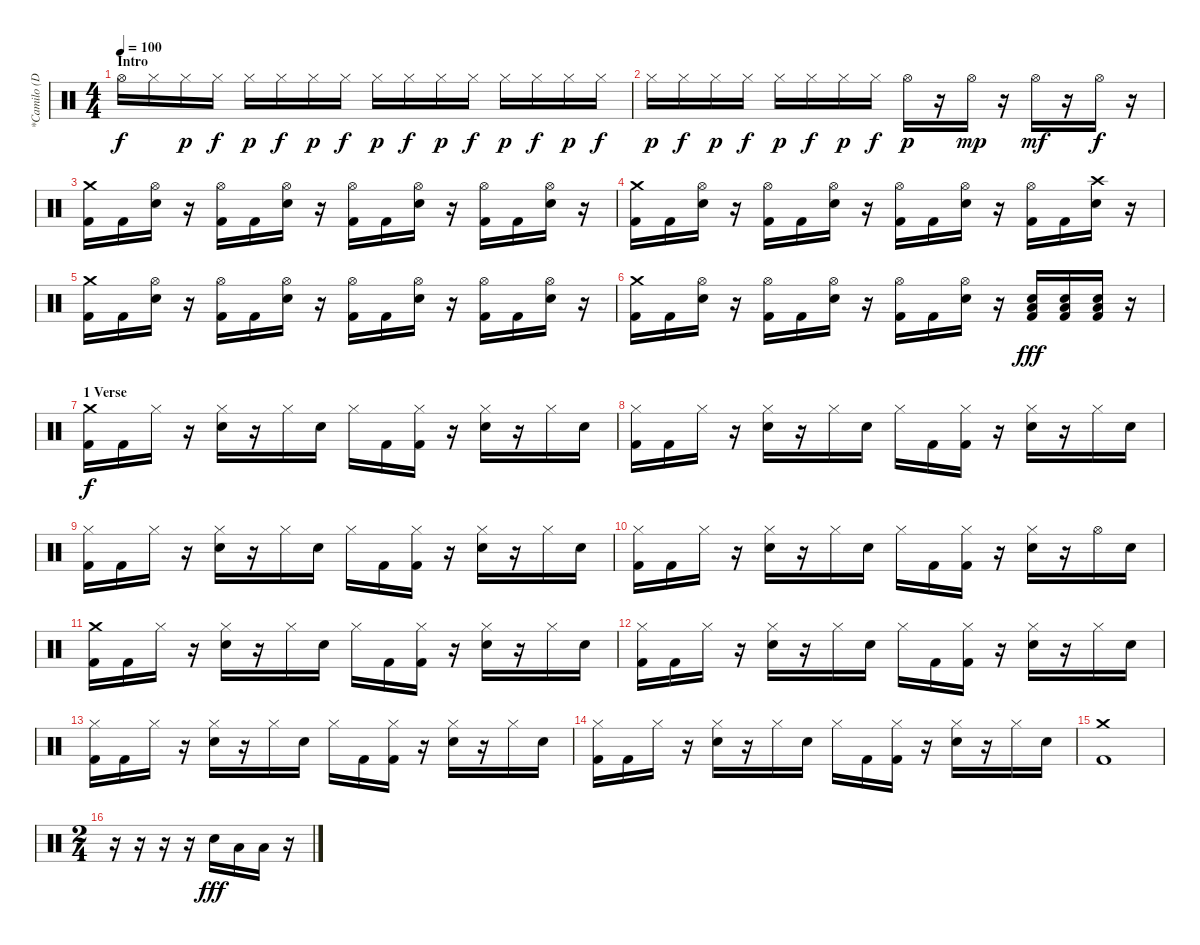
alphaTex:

\track ("*Camilo (Drums)" "*Camilo (D") {instrument percussion}
\staff {score}
\articulation defaults
\ts (4 4)
\section ("" "Intro")
\tempo 100
\clef neutral
\ks c "Hi-Hat (open)".16{dy f} "Hi-Hat (closed)".16 "Hi-Hat (closed)".16{dy p} "Hi-Hat (closed)".16{dy f} "Hi-Hat (closed)".16{dy p} "Hi-Hat (closed)".16{dy f} "Hi-Hat (closed)".16{dy p} "Hi-Hat (closed)".16{dy f} "Hi-Hat (closed)".16{dy p} "Hi-Hat (closed)".16{dy f} "Hi-Hat (closed)".16{dy p} "Hi-Hat (closed)".16{dy f} "Hi-Hat (closed)".16{dy p} "Hi-Hat (closed)".16{dy f} "Hi-Hat (closed)".16{dy p} "Hi-Hat (closed)".16{dy f}
|
"Hi-Hat (closed)".16{dy p} "Hi-Hat (closed)".16{dy f} "Hi-Hat (closed)".16{dy p} "Hi-Hat (closed)".16{dy f} "Hi-Hat (closed)".16{dy p} "Hi-Hat (closed)".16{dy f} "Hi-Hat (closed)".16{dy p} "Hi-Hat (closed)".16{dy f} "Hi-Hat (open)".16{dy p} r.16 "Hi-Hat (open)".16{dy mp} r.16 "Hi-Hat (open)".16{dy mf} r.16 "Hi-Hat (open)".16{dy f} r.16 |
("Crash medium (hit)" "Kick (hit) 2").16 "Kick (hit) 2".16 ("Hi-Hat (open)" "Electric Snare (hit)").16 r.16 ("Hi-Hat (open)" "Kick (hit) 2").16 "Kick (hit) 2".16 ("Hi-Hat (open)" "Electric Snare (hit)").16 r.16 ("Hi-Hat (open)" "Kick (hit) 2").16 "Kick (hit) 2".16 ("Hi-Hat (open)" "Electric Snare (hit)").16 r.16 ("Hi-Hat (open)" "Kick (hit) 2").16 "Kick (hit) 2".16 ("Hi-Hat (open)" "Electric Snare (hit)").16 r.16 |
("Crash medium (hit)" "Kick (hit) 2").16 "Kick (hit) 2".16 ("Hi-Hat (open)" "Electric Snare (hit)").16 r.16 ("Hi-Hat (open)" "Kick (hit) 2").16 "Kick (hit) 2".16 ("Hi-Hat (open)" "Electric Snare (hit)").16 r.16 ("Hi-Hat (open)" "Kick (hit) 2").16 "Kick (hit) 2".16 ("Hi-Hat (open)" "Electric Snare (hit)").16 r.16 ("Hi-Hat (open)" "Kick (hit) 2").16 "Kick (hit) 2".16 ("Crash high (hit)" "Electric Snare (hit)").16 r.16 |
("Crash medium (hit)" "Kick (hit) 2").16 "Kick (hit) 2".16 ("Hi-Hat (open)" "Electric Snare (hit)").16 r.16 ("Hi-Hat (open)" "Kick (hit) 2").16 "Kick (hit) 2".16 ("Hi-Hat (open)" "Electric Snare (hit)").16 r.16 ("Hi-Hat (open)" "Kick (hit) 2").16 "Kick (hit) 2".16 ("Hi-Hat (open)" "Electric Snare (hit)").16 r.16 ("Hi-Hat (open)" "Kick (hit) 2").16 "Kick (hit) 2".16 ("Hi-Hat (open)" "Electric Snare (hit)").16 r.16 |
("Crash medium (hit)" "Kick (hit) 2").16 "Kick (hit) 2".16 ("Hi-Hat (open)" "Electric Snare (hit)").16 r.16 ("Hi-Hat (open)" "Kick (hit) 2").16 "Kick (hit) 2".16 ("Hi-Hat (open)" "Electric Snare (hit)").16 r.16 ("Hi-Hat (open)" "Kick (hit) 2").16 "Kick (hit) 2".16 ("Hi-Hat (open)" "Electric Snare (hit)").16 r.16 ("Electric Snare (hit)" "Low Floor Tom (hit)" "Kick (hit) 2").16{dy fff} ("Electric Snare (hit)" "Low Floor Tom (hit)" "Kick (hit) 2").16 ("Electric Snare (hit)" "Low Floor Tom (hit)" "Kick (hit) 2").16 r.16 |
\section ("" "1 Verse")
("Crash medium (hit)" "Kick (hit) 2").16{dy f} "Kick (hit) 2".16 "Hi-Hat (closed)".16 r.16 ("Hi-Hat (closed)" "Electric Snare (hit)").16 r.16 "Hi-Hat (closed)".16 "Electric Snare (hit)".16 "Hi-Hat (closed)".16 "Kick (hit) 2".16 ("Hi-Hat (closed)" "Kick (hit) 2").16 r.16 ("Hi-Hat (closed)" "Electric Snare (hit)").16 r.16 "Hi-Hat (closed)".16 "Electric Snare (hit)".16 |
("Hi-Hat (closed)" "Kick (hit) 2").16 "Kick (hit) 2".16 "Hi-Hat (closed)".16 r.16 ("Hi-Hat (closed)" "Electric Snare (hit)").16 r.16 "Hi-Hat (closed)".16 "Electric Snare (hit)".16 "Hi-Hat (closed)".16 "Kick (hit) 2".16 ("Hi-Hat (closed)" "Kick (hit) 2").16 r.16 ("Hi-Hat (closed)" "Electric Snare (hit)").16 r.16 "Hi-Hat (closed)".16 "Electric Snare (hit)".16 |
("Hi-Hat (closed)" "Kick (hit) 2").16 "Kick (hit) 2".16 "Hi-Hat (closed)".16 r.16 ("Hi-Hat (closed)" "Electric Snare (hit)").16 r.16 "Hi-Hat (closed)".16 "Electric Snare (hit)".16 "Hi-Hat (closed)".16 "Kick (hit) 2".16 ("Hi-Hat (closed)" "Kick (hit) 2").16 r.16 ("Hi-Hat (closed)" "Electric Snare (hit)").16 r.16 "Hi-Hat (closed)".16 "Electric Snare (hit)".16 |
("Hi-Hat (closed)" "Kick (hit) 2").16 "Kick (hit) 2".16 "Hi-Hat (closed)".16 r.16 ("Hi-Hat (closed)" "Electric Snare (hit)").16 r.16 "Hi-Hat (closed)".16 "Electric Snare (hit)".16 "Hi-Hat (closed)".16 "Kick (hit) 2".16 ("Hi-Hat (closed)" "Kick (hit) 2").16 r.16 ("Hi-Hat (closed)" "Electric Snare (hit)").16 r.16 "Hi-Hat (open)".16 "Electric Snare (hit)".16 |
("Crash medium (hit)" "Kick (hit) 2").16 "Kick (hit) 2".16 "Hi-Hat (closed)".16 r.16 ("Hi-Hat (closed)" "Electric Snare (hit)").16 r.16 "Hi-Hat (closed)".16 "Electric Snare (hit)".16 "Hi-Hat (closed)".16 "Kick (hit) 2".16 ("Hi-Hat (closed)" "Kick (hit) 2").16 r.16 ("Hi-Hat (closed)" "Electric Snare (hit)").16 r.16 "Hi-Hat (closed)".16 "Electric Snare (hit)".16 |
("Hi-Hat (closed)" "Kick (hit) 2").16 "Kick (hit) 2".16 "Hi-Hat (closed)".16 r.16 ("Hi-Hat (closed)" "Electric Snare (hit)").16 r.16 "Hi-Hat (closed)".16 "Electric Snare (hit)".16 "Hi-Hat (closed)".16 "Kick (hit) 2".16 ("Hi-Hat (closed)" "Kick (hit) 2").16 r.16 ("Hi-Hat (closed)" "Electric Snare (hit)").16 r.16 "Hi-Hat (closed)".16 "Electric Snare (hit)".16 |
("Hi-Hat (closed)" "Kick (hit) 2").16 "Kick (hit) 2".16 "Hi-Hat (closed)".16 r.16 ("Hi-Hat (closed)" "Electric Snare (hit)").16 r.16 "Hi-Hat (closed)".16 "Electric Snare (hit)".16 "Hi-Hat (closed)".16 "Kick (hit) 2".16 ("Hi-Hat (closed)" "Kick (hit) 2").16 r.16 ("Hi-Hat (closed)" "Electric Snare (hit)").16 r.16 "Hi-Hat (closed)".16 "Electric Snare (hit)".16 |
("Hi-Hat (closed)" "Kick (hit) 2").16 "Kick (hit) 2".16 "Hi-Hat (closed)".16 r.16 ("Hi-Hat (closed)" "Electric Snare (hit)").16 r.16 "Hi-Hat (closed)".16 "Electric Snare (hit)".16 "Hi-Hat (closed)".16 "Kick (hit) 2".16 ("Hi-Hat (closed)" "Kick (hit) 2").16 r.16 ("Hi-Hat (closed)" "Electric Snare (hit)").16 r.16 "Hi-Hat (closed)".16 "Electric Snare (hit)".16 |
("Crash medium (hit)" "Kick (hit) 2").1 |
\ts (2 4)
r.16 r.16 r.16 r.16 "Electric Snare (hit)".16{dy fff} "Low Tom (hit)".16 "Low Tom (hit)".16 r.16
